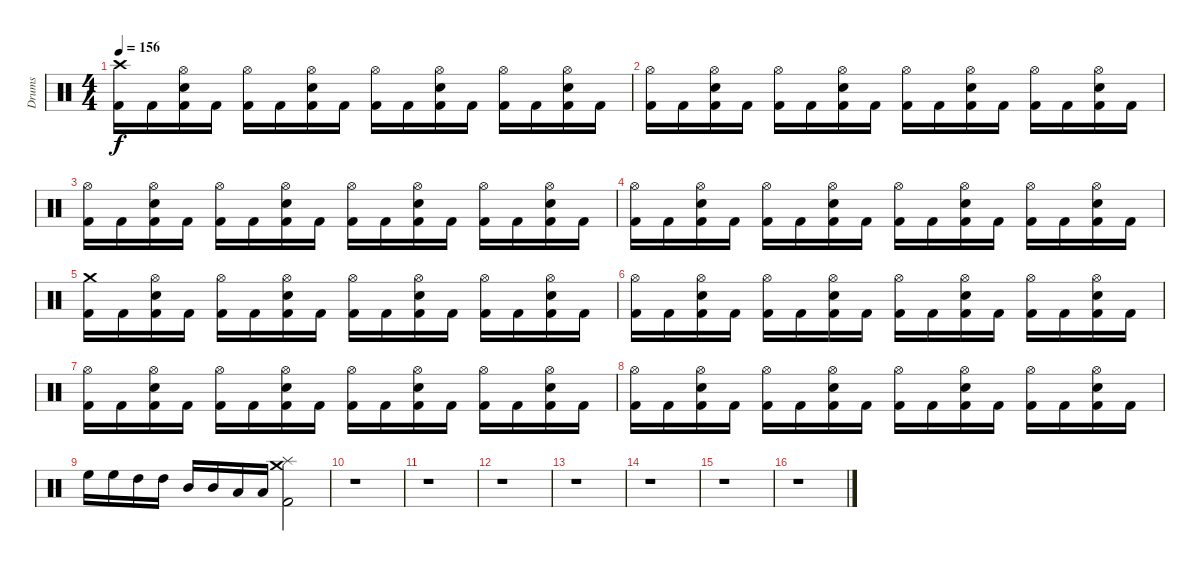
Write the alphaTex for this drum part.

\track ("Drums" "Drums") {instrument percussion}
\staff {score}
\articulation defaults
\ts (4 4)
\section ("" "")
\tempo 156
\clef neutral
\ks c
("Kick (hit) 2" "Crash high (hit)").16{dy f} "Kick (hit) 2".16 ("Kick (hit) 2" "Snare (hit) 2" "Hi-Hat (open)").16 "Kick (hit) 2".16 ("Kick (hit) 2" "Hi-Hat (open)").16 "Kick (hit) 2".16 ("Kick (hit) 2" "Snare (hit) 2" "Hi-Hat (open)").16 "Kick (hit) 2".16 ("Kick (hit) 2" "Hi-Hat (open)").16 "Kick (hit) 2".16 ("Kick (hit) 2" "Snare (hit) 2" "Hi-Hat (open)").16 "Kick (hit) 2".16 ("Kick (hit) 2" "Hi-Hat (open)").16 "Kick (hit) 2".16 ("Kick (hit) 2" "Snare (hit) 2" "Hi-Hat (open)").16 "Kick (hit) 2".16 |
("Kick (hit) 2" "Hi-Hat (open)").16 "Kick (hit) 2".16 ("Kick (hit) 2" "Snare (hit) 2" "Hi-Hat (open)").16 "Kick (hit) 2".16 ("Kick (hit) 2" "Hi-Hat (open)").16 "Kick (hit) 2".16 ("Kick (hit) 2" "Snare (hit) 2" "Hi-Hat (open)").16 "Kick (hit) 2".16 ("Kick (hit) 2" "Hi-Hat (open)").16 "Kick (hit) 2".16 ("Kick (hit) 2" "Snare (hit) 2" "Hi-Hat (open)").16 "Kick (hit) 2".16 ("Kick (hit) 2" "Hi-Hat (open)").16 "Kick (hit) 2".16 ("Kick (hit) 2" "Snare (hit) 2" "Hi-Hat (open)").16 "Kick (hit) 2".16 |
("Kick (hit) 2" "Hi-Hat (open)").16 "Kick (hit) 2".16 ("Kick (hit) 2" "Snare (hit) 2" "Hi-Hat (open)").16 "Kick (hit) 2".16 ("Kick (hit) 2" "Hi-Hat (open)").16 "Kick (hit) 2".16 ("Kick (hit) 2" "Snare (hit) 2" "Hi-Hat (open)").16 "Kick (hit) 2".16 ("Kick (hit) 2" "Hi-Hat (open)").16 "Kick (hit) 2".16 ("Kick (hit) 2" "Snare (hit) 2" "Hi-Hat (open)").16 "Kick (hit) 2".16 ("Kick (hit) 2" "Hi-Hat (open)").16 "Kick (hit) 2".16 ("Kick (hit) 2" "Snare (hit) 2" "Hi-Hat (open)").16 "Kick (hit) 2".16 |
("Kick (hit) 2" "Hi-Hat (open)").16 "Kick (hit) 2".16 ("Kick (hit) 2" "Snare (hit) 2" "Hi-Hat (open)").16 "Kick (hit) 2".16 ("Kick (hit) 2" "Hi-Hat (open)").16 "Kick (hit) 2".16 ("Kick (hit) 2" "Snare (hit) 2" "Hi-Hat (open)").16 "Kick (hit) 2".16 ("Kick (hit) 2" "Hi-Hat (open)").16 "Kick (hit) 2".16 ("Kick (hit) 2" "Snare (hit) 2" "Hi-Hat (open)").16 "Kick (hit) 2".16 ("Kick (hit) 2" "Hi-Hat (open)").16 "Kick (hit) 2".16 ("Kick (hit) 2" "Snare (hit) 2" "Hi-Hat (open)").16 "Kick (hit) 2".16 |
("Kick (hit) 2" "Crash medium (hit)").16 "Kick (hit) 2".16 ("Kick (hit) 2" "Snare (hit) 2" "Hi-Hat (open)").16 "Kick (hit) 2".16 ("Kick (hit) 2" "Hi-Hat (open)").16 "Kick (hit) 2".16 ("Kick (hit) 2" "Snare (hit) 2" "Hi-Hat (open)").16 "Kick (hit) 2".16 ("Kick (hit) 2" "Hi-Hat (open)").16 "Kick (hit) 2".16 ("Kick (hit) 2" "Snare (hit) 2" "Hi-Hat (open)").16 "Kick (hit) 2".16 ("Kick (hit) 2" "Hi-Hat (open)").16 "Kick (hit) 2".16 ("Kick (hit) 2" "Snare (hit) 2" "Hi-Hat (open)").16 "Kick (hit) 2".16 |
("Kick (hit) 2" "Hi-Hat (open)").16 "Kick (hit) 2".16 ("Kick (hit) 2" "Snare (hit) 2" "Hi-Hat (open)").16 "Kick (hit) 2".16 ("Kick (hit) 2" "Hi-Hat (open)").16 "Kick (hit) 2".16 ("Kick (hit) 2" "Snare (hit) 2" "Hi-Hat (open)").16 "Kick (hit) 2".16 ("Kick (hit) 2" "Hi-Hat (open)").16 "Kick (hit) 2".16 ("Kick (hit) 2" "Snare (hit) 2" "Hi-Hat (open)").16 "Kick (hit) 2".16 ("Kick (hit) 2" "Hi-Hat (open)").16 "Kick (hit) 2".16 ("Kick (hit) 2" "Snare (hit) 2" "Hi-Hat (open)").16 "Kick (hit) 2".16 |
("Kick (hit) 2" "Hi-Hat (open)").16 "Kick (hit) 2".16 ("Kick (hit) 2" "Snare (hit) 2" "Hi-Hat (open)").16 "Kick (hit) 2".16 ("Kick (hit) 2" "Hi-Hat (open)").16 "Kick (hit) 2".16 ("Kick (hit) 2" "Snare (hit) 2" "Hi-Hat (open)").16 "Kick (hit) 2".16 ("Kick (hit) 2" "Hi-Hat (open)").16 "Kick (hit) 2".16 ("Kick (hit) 2" "Snare (hit) 2" "Hi-Hat (open)").16 "Kick (hit) 2".16 ("Kick (hit) 2" "Hi-Hat (open)").16 "Kick (hit) 2".16 ("Kick (hit) 2" "Snare (hit) 2" "Hi-Hat (open)").16 "Kick (hit) 2".16 |
("Kick (hit) 2" "Hi-Hat (open)").16 "Kick (hit) 2".16 ("Kick (hit) 2" "Snare (hit) 2" "Hi-Hat (open)").16 "Kick (hit) 2".16 ("Kick (hit) 2" "Hi-Hat (open)").16 "Kick (hit) 2".16 ("Kick (hit) 2" "Snare (hit) 2" "Hi-Hat (open)").16 "Kick (hit) 2".16 ("Kick (hit) 2" "Hi-Hat (open)").16 "Kick (hit) 2".16 ("Kick (hit) 2" "Snare (hit) 2" "Hi-Hat (open)").16 "Kick (hit) 2".16 ("Kick (hit) 2" "Hi-Hat (open)").16 "Kick (hit) 2".16 ("Kick (hit) 2" "Snare (hit) 2" "Hi-Hat (open)").16 "Kick (hit) 2".16 |
"High Floor Tom (hit)".16 "High Floor Tom (hit)".16 "High Tom (hit)".16 "High Tom (hit)".16 "Mid Tom (hit)".16 "Mid Tom (hit)".16 "Low Tom (hit)".16 "Low Tom (hit)".16 ("Kick (hit) 2" "Splash (hit)" "Crash medium (hit)").2 |
\section ("" "")
r.1 |
r.1 |
r.1 |
r.1 |
r.1 |
r.1 |
r.1
